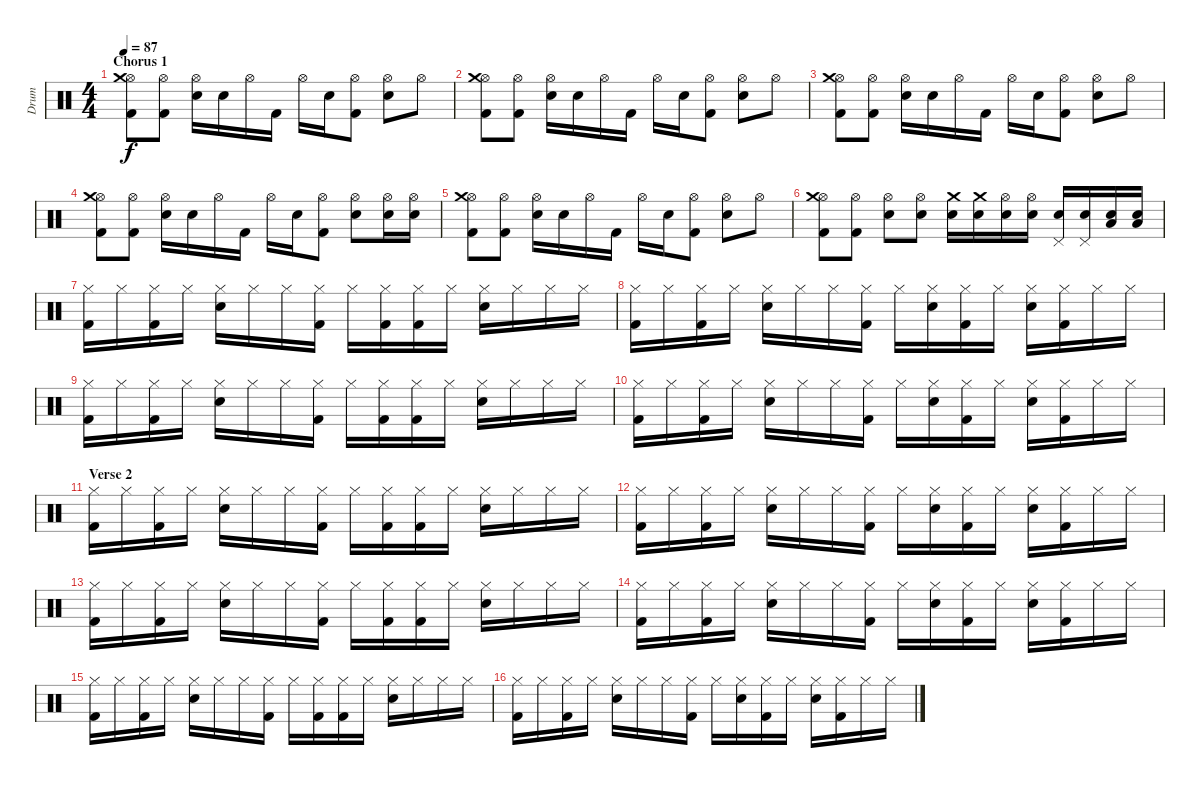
\track ("Drum" "Drum") {instrument percussion}
\staff {score}
\articulation defaults
\ts (4 4)
\section ("" "Chorus 1")
\tempo 87
\clef neutral
\ks c
("Hi-Hat (open)" "Crash medium (hit)" "Kick (hit) 2").8{dy f} ("Hi-Hat (open)" "Kick (hit) 2").8 ("Hi-Hat (open)" "Snare (hit) 2").16 "Snare (hit) 2".16 "Hi-Hat (open)".16 "Kick (hit) 2".16 "Hi-Hat (open)".16 "Snare (hit) 2".16 ("Hi-Hat (open)" "Kick (hit) 2").8 ("Hi-Hat (open)" "Snare (hit) 2").8 "Hi-Hat (open)".8 |
("Hi-Hat (open)" "Crash medium (hit)" "Kick (hit) 2").8 ("Hi-Hat (open)" "Kick (hit) 2").8 ("Hi-Hat (open)" "Snare (hit) 2").16 "Snare (hit) 2".16 "Hi-Hat (open)".16 "Kick (hit) 2".16 "Hi-Hat (open)".16 "Snare (hit) 2".16 ("Hi-Hat (open)" "Kick (hit) 2").8 ("Hi-Hat (open)" "Snare (hit) 2").8 "Hi-Hat (open)".8 |
("Hi-Hat (open)" "Crash medium (hit)" "Kick (hit) 2").8 ("Hi-Hat (open)" "Kick (hit) 2").8 ("Hi-Hat (open)" "Snare (hit) 2").16 "Snare (hit) 2".16 "Hi-Hat (open)".16 "Kick (hit) 2".16 "Hi-Hat (open)".16 "Snare (hit) 2".16 ("Hi-Hat (open)" "Kick (hit) 2").8 ("Hi-Hat (open)" "Snare (hit) 2").8 "Hi-Hat (open)".8 |
("Hi-Hat (open)" "Crash medium (hit)" "Kick (hit) 2").8 ("Hi-Hat (open)" "Kick (hit) 2").8 ("Hi-Hat (open)" "Snare (hit) 2").16 "Snare (hit) 2".16 "Hi-Hat (open)".16 "Kick (hit) 2".16 "Hi-Hat (open)".16 "Snare (hit) 2".16 ("Hi-Hat (open)" "Kick (hit) 2").8 ("Hi-Hat (open)" "Snare (hit) 2").8 ("Hi-Hat (open)" "Snare (hit) 2").16 ("Hi-Hat (open)" "Snare (hit) 2").16 |
("Hi-Hat (open)" "Crash medium (hit)" "Kick (hit) 2").8 ("Hi-Hat (open)" "Kick (hit) 2").8 ("Hi-Hat (open)" "Snare (hit) 2").16 "Snare (hit) 2".16 "Hi-Hat (open)".16 "Kick (hit) 2".16 "Hi-Hat (open)".16 "Snare (hit) 2".16 ("Hi-Hat (open)" "Kick (hit) 2").8 ("Hi-Hat (open)" "Snare (hit) 2").8 "Hi-Hat (open)".8 |
("Hi-Hat (open)" "Crash medium (hit)" "Kick (hit) 2").8 ("Hi-Hat (open)" "Kick (hit) 2").8 ("Hi-Hat (open)" "Snare (hit) 2").8 ("Hi-Hat (open)" "Snare (hit) 2").8 ("Crash medium (hit)" "Snare (hit) 2").16 ("Crash medium (hit)" "Snare (hit) 2").16 ("Hi-Hat (open)" "Snare (hit) 2").16 ("Hi-Hat (open)" "Snare (hit) 2").16 ("Pedal Hi-Hat (hit)" "Snare (hit) 2").16 ("Pedal Hi-Hat (hit)" "Snare (hit) 2").16 ("Low Tom (hit)" "Snare (hit) 2").16 ("Low Tom (hit)" "Snare (hit) 2").16 |
("Hi-Hat (closed)" "Kick (hit) 2").16 "Hi-Hat (closed)".16 ("Hi-Hat (closed)" "Kick (hit) 2").16 "Hi-Hat (closed)".16 ("Hi-Hat (closed)" "Snare (hit) 2").16 "Hi-Hat (closed)".16 "Hi-Hat (closed)".16 ("Hi-Hat (closed)" "Kick (hit) 2").16 "Hi-Hat (closed)".16 ("Hi-Hat (closed)" "Kick (hit) 2").16 ("Hi-Hat (closed)" "Kick (hit) 2").16 "Hi-Hat (closed)".16 ("Hi-Hat (closed)" "Snare (hit) 2").16 "Hi-Hat (closed)".16 "Hi-Hat (closed)".16 "Hi-Hat (closed)".16 |
("Hi-Hat (closed)" "Kick (hit) 2").16 "Hi-Hat (closed)".16 ("Hi-Hat (closed)" "Kick (hit) 2").16 "Hi-Hat (closed)".16 ("Hi-Hat (closed)" "Snare (hit) 2").16 "Hi-Hat (closed)".16 "Hi-Hat (closed)".16 ("Hi-Hat (closed)" "Kick (hit) 2").16 "Hi-Hat (closed)".16 ("Hi-Hat (closed)" "Snare (hit) 2").16 ("Hi-Hat (closed)" "Kick (hit) 2").16 "Hi-Hat (closed)".16 ("Hi-Hat (closed)" "Snare (hit) 2").16 ("Hi-Hat (closed)" "Kick (hit) 2").16 "Hi-Hat (closed)".16 "Hi-Hat (closed)".16 |
("Hi-Hat (closed)" "Kick (hit) 2").16 "Hi-Hat (closed)".16 ("Hi-Hat (closed)" "Kick (hit) 2").16 "Hi-Hat (closed)".16 ("Hi-Hat (closed)" "Snare (hit) 2").16 "Hi-Hat (closed)".16 "Hi-Hat (closed)".16 ("Hi-Hat (closed)" "Kick (hit) 2").16 "Hi-Hat (closed)".16 ("Hi-Hat (closed)" "Kick (hit) 2").16 ("Hi-Hat (closed)" "Kick (hit) 2").16 "Hi-Hat (closed)".16 ("Hi-Hat (closed)" "Snare (hit) 2").16 "Hi-Hat (closed)".16 "Hi-Hat (closed)".16 "Hi-Hat (closed)".16 |
("Hi-Hat (closed)" "Kick (hit) 2").16 "Hi-Hat (closed)".16 ("Hi-Hat (closed)" "Kick (hit) 2").16 "Hi-Hat (closed)".16 ("Hi-Hat (closed)" "Snare (hit) 2").16 "Hi-Hat (closed)".16 "Hi-Hat (closed)".16 ("Hi-Hat (closed)" "Kick (hit) 2").16 "Hi-Hat (closed)".16 ("Hi-Hat (closed)" "Snare (hit) 2").16 ("Hi-Hat (closed)" "Kick (hit) 2").16 "Hi-Hat (closed)".16 ("Hi-Hat (closed)" "Snare (hit) 2").16 ("Hi-Hat (closed)" "Kick (hit) 2").16 "Hi-Hat (closed)".16 "Hi-Hat (closed)".16 |
\section ("" "Verse 2")
("Hi-Hat (closed)" "Kick (hit) 2").16 "Hi-Hat (closed)".16 ("Hi-Hat (closed)" "Kick (hit) 2").16 "Hi-Hat (closed)".16 ("Hi-Hat (closed)" "Snare (hit) 2").16 "Hi-Hat (closed)".16 "Hi-Hat (closed)".16 ("Hi-Hat (closed)" "Kick (hit) 2").16 "Hi-Hat (closed)".16 ("Hi-Hat (closed)" "Kick (hit) 2").16 ("Hi-Hat (closed)" "Kick (hit) 2").16 "Hi-Hat (closed)".16 ("Hi-Hat (closed)" "Snare (hit) 2").16 "Hi-Hat (closed)".16 "Hi-Hat (closed)".16 "Hi-Hat (closed)".16 |
("Hi-Hat (closed)" "Kick (hit) 2").16 "Hi-Hat (closed)".16 ("Hi-Hat (closed)" "Kick (hit) 2").16 "Hi-Hat (closed)".16 ("Hi-Hat (closed)" "Snare (hit) 2").16 "Hi-Hat (closed)".16 "Hi-Hat (closed)".16 ("Hi-Hat (closed)" "Kick (hit) 2").16 "Hi-Hat (closed)".16 ("Hi-Hat (closed)" "Snare (hit) 2").16 ("Hi-Hat (closed)" "Kick (hit) 2").16 "Hi-Hat (closed)".16 ("Hi-Hat (closed)" "Snare (hit) 2").16 ("Hi-Hat (closed)" "Kick (hit) 2").16 "Hi-Hat (closed)".16 "Hi-Hat (closed)".16 |
("Hi-Hat (closed)" "Kick (hit) 2").16 "Hi-Hat (closed)".16 ("Hi-Hat (closed)" "Kick (hit) 2").16 "Hi-Hat (closed)".16 ("Hi-Hat (closed)" "Snare (hit) 2").16 "Hi-Hat (closed)".16 "Hi-Hat (closed)".16 ("Hi-Hat (closed)" "Kick (hit) 2").16 "Hi-Hat (closed)".16 ("Hi-Hat (closed)" "Kick (hit) 2").16 ("Hi-Hat (closed)" "Kick (hit) 2").16 "Hi-Hat (closed)".16 ("Hi-Hat (closed)" "Snare (hit) 2").16 "Hi-Hat (closed)".16 "Hi-Hat (closed)".16 "Hi-Hat (closed)".16 |
("Hi-Hat (closed)" "Kick (hit) 2").16 "Hi-Hat (closed)".16 ("Hi-Hat (closed)" "Kick (hit) 2").16 "Hi-Hat (closed)".16 ("Hi-Hat (closed)" "Snare (hit) 2").16 "Hi-Hat (closed)".16 "Hi-Hat (closed)".16 ("Hi-Hat (closed)" "Kick (hit) 2").16 "Hi-Hat (closed)".16 ("Hi-Hat (closed)" "Snare (hit) 2").16 ("Hi-Hat (closed)" "Kick (hit) 2").16 "Hi-Hat (closed)".16 ("Hi-Hat (closed)" "Snare (hit) 2").16 ("Hi-Hat (closed)" "Kick (hit) 2").16 "Hi-Hat (closed)".16 "Hi-Hat (closed)".16 |
("Hi-Hat (closed)" "Kick (hit) 2").16 "Hi-Hat (closed)".16 ("Hi-Hat (closed)" "Kick (hit) 2").16 "Hi-Hat (closed)".16 ("Hi-Hat (closed)" "Snare (hit) 2").16 "Hi-Hat (closed)".16 "Hi-Hat (closed)".16 ("Hi-Hat (closed)" "Kick (hit) 2").16 "Hi-Hat (closed)".16 ("Hi-Hat (closed)" "Kick (hit) 2").16 ("Hi-Hat (closed)" "Kick (hit) 2").16 "Hi-Hat (closed)".16 ("Hi-Hat (closed)" "Snare (hit) 2").16 "Hi-Hat (closed)".16 "Hi-Hat (closed)".16 "Hi-Hat (closed)".16 |
("Hi-Hat (closed)" "Kick (hit) 2").16 "Hi-Hat (closed)".16 ("Hi-Hat (closed)" "Kick (hit) 2").16 "Hi-Hat (closed)".16 ("Hi-Hat (closed)" "Snare (hit) 2").16 "Hi-Hat (closed)".16 "Hi-Hat (closed)".16 ("Hi-Hat (closed)" "Kick (hit) 2").16 "Hi-Hat (closed)".16 ("Hi-Hat (closed)" "Snare (hit) 2").16 ("Hi-Hat (closed)" "Kick (hit) 2").16 "Hi-Hat (closed)".16 ("Hi-Hat (closed)" "Snare (hit) 2").16 ("Hi-Hat (closed)" "Kick (hit) 2").16 "Hi-Hat (closed)".16 "Hi-Hat (closed)".16
